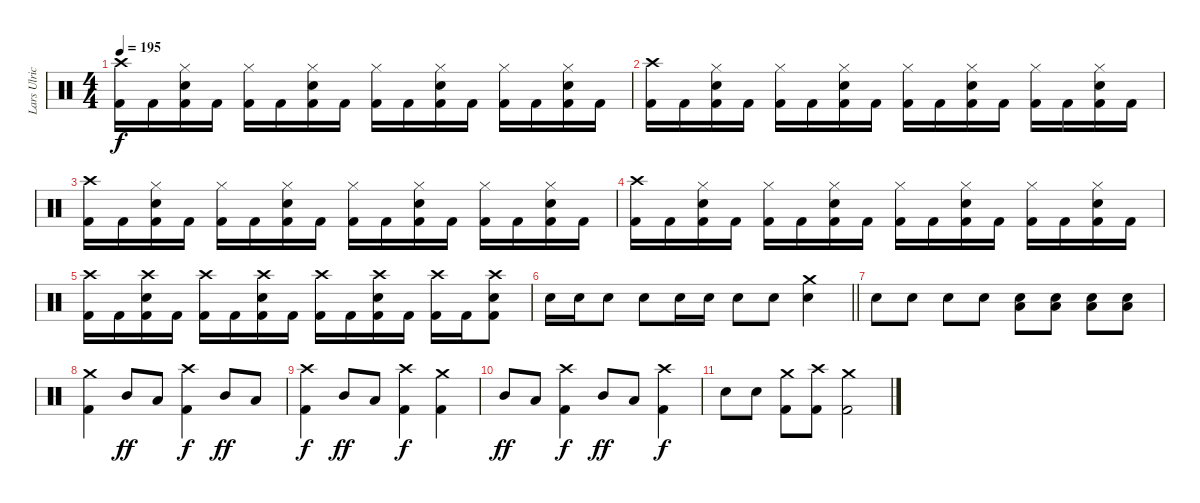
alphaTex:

\track ("Lars Ulrich" "Lars Ulric") {instrument percussion}
\staff {score}
\articulation defaults
\ts (4 4)
\tempo 195
\clef neutral
\ks c
("Crash high (hit)" "Kick (hit) 2").16{dy f} "Kick (hit) 2".16 ("Hi-Hat (closed)" "Electric Snare (hit)" "Kick (hit) 2").16 "Kick (hit) 2".16 ("Hi-Hat (closed)" "Kick (hit) 2").16 "Kick (hit) 2".16 ("Hi-Hat (closed)" "Electric Snare (hit)" "Kick (hit) 2").16 "Kick (hit) 2".16 ("Hi-Hat (closed)" "Kick (hit) 2").16 "Kick (hit) 2".16 ("Hi-Hat (closed)" "Electric Snare (hit)" "Kick (hit) 2").16 "Kick (hit) 2".16 ("Hi-Hat (closed)" "Kick (hit) 2").16 "Kick (hit) 2".16 ("Hi-Hat (closed)" "Electric Snare (hit)" "Kick (hit) 2").16 "Kick (hit) 2".16 |
("Crash high (hit)" "Kick (hit) 2").16 "Kick (hit) 2".16 ("Hi-Hat (closed)" "Electric Snare (hit)" "Kick (hit) 2").16 "Kick (hit) 2".16 ("Hi-Hat (closed)" "Kick (hit) 2").16 "Kick (hit) 2".16 ("Hi-Hat (closed)" "Electric Snare (hit)" "Kick (hit) 2").16 "Kick (hit) 2".16 ("Hi-Hat (closed)" "Kick (hit) 2").16 "Kick (hit) 2".16 ("Hi-Hat (closed)" "Electric Snare (hit)" "Kick (hit) 2").16 "Kick (hit) 2".16 ("Hi-Hat (closed)" "Kick (hit) 2").16 "Kick (hit) 2".16 ("Hi-Hat (closed)" "Electric Snare (hit)" "Kick (hit) 2").16 "Kick (hit) 2".16 |
("Crash high (hit)" "Kick (hit) 2").16 "Kick (hit) 2".16 ("Hi-Hat (closed)" "Electric Snare (hit)" "Kick (hit) 2").16 "Kick (hit) 2".16 ("Hi-Hat (closed)" "Kick (hit) 2").16 "Kick (hit) 2".16 ("Hi-Hat (closed)" "Electric Snare (hit)" "Kick (hit) 2").16 "Kick (hit) 2".16 ("Hi-Hat (closed)" "Kick (hit) 2").16 "Kick (hit) 2".16 ("Hi-Hat (closed)" "Electric Snare (hit)" "Kick (hit) 2").16 "Kick (hit) 2".16 ("Hi-Hat (closed)" "Kick (hit) 2").16 "Kick (hit) 2".16 ("Hi-Hat (closed)" "Electric Snare (hit)" "Kick (hit) 2").16 "Kick (hit) 2".16 |
("Crash high (hit)" "Kick (hit) 2").16 "Kick (hit) 2".16 ("Hi-Hat (closed)" "Electric Snare (hit)" "Kick (hit) 2").16 "Kick (hit) 2".16 ("Hi-Hat (closed)" "Kick (hit) 2").16 "Kick (hit) 2".16 ("Hi-Hat (closed)" "Electric Snare (hit)" "Kick (hit) 2").16 "Kick (hit) 2".16 ("Hi-Hat (closed)" "Kick (hit) 2").16 "Kick (hit) 2".16 ("Hi-Hat (closed)" "Electric Snare (hit)" "Kick (hit) 2").16 "Kick (hit) 2".16 ("Hi-Hat (closed)" "Kick (hit) 2").16 "Kick (hit) 2".16 ("Hi-Hat (closed)" "Electric Snare (hit)" "Kick (hit) 2").16 "Kick (hit) 2".16 |
("Crash high (hit)" "Kick (hit) 2").16 "Kick (hit) 2".16 ("Crash high (hit)" "Electric Snare (hit)" "Kick (hit) 2").16 "Kick (hit) 2".16 ("Crash high (hit)" "Kick (hit) 2").16 "Kick (hit) 2".16 ("Crash high (hit)" "Electric Snare (hit)" "Kick (hit) 2").16 "Kick (hit) 2".16 ("Crash high (hit)" "Kick (hit) 2").16 "Kick (hit) 2".16 ("Crash high (hit)" "Electric Snare (hit)" "Kick (hit) 2").16 "Kick (hit) 2".16 ("Crash high (hit)" "Kick (hit) 2").16 "Kick (hit) 2".16 ("Crash high (hit)" "Electric Snare (hit)" "Kick (hit) 2").8 |
\barLineRight lightlight "Electric Snare (hit)".16 "Electric Snare (hit)".16 "Electric Snare (hit)".8 "Electric Snare (hit)".8 "Electric Snare (hit)".16 "Electric Snare (hit)".16 "Electric Snare (hit)".8 "Electric Snare (hit)".8
("Crash medium (hit)" "Electric Snare (hit)").4 |
"Electric Snare (hit)".8 "Electric Snare (hit)".8 "Electric Snare (hit)".8 "Electric Snare (hit)".8 ("Low Floor Tom (hit)" "Electric Snare (hit)").8 ("Low Floor Tom (hit)" "Electric Snare (hit)").8 ("Low Floor Tom (hit)" "Electric Snare (hit)").8 ("Low Floor Tom (hit)" "Electric Snare (hit)").8 |
("Crash medium (hit)" "Kick (hit) 2").4 "Mid Tom (hit)".8{dy ff} "Low Tom (hit)".8 ("Crash high (hit)" "Kick (hit) 2").4{dy f} "Mid Tom (hit)".8{dy ff} "Low Tom (hit)".8 |
("Crash high (hit)" "Kick (hit) 2").4{dy f} "Mid Tom (hit)".8{dy ff} "Low Tom (hit)".8 ("Crash high (hit)" "Kick (hit) 2").4{dy f} ("Crash medium (hit)" "Kick (hit) 2").4 |
"Mid Tom (hit)".8{dy ff} "Low Tom (hit)".8 ("Crash high (hit)" "Kick (hit) 2").4{dy f} "Mid Tom (hit)".8{dy ff} "Low Tom (hit)".8 ("Crash high (hit)" "Kick (hit) 2").4{dy f} |
"Electric Snare (hit)".8 "Electric Snare (hit)".8 ("Crash medium (hit)" "Kick (hit) 2").8 ("Crash high (hit)" "Kick (hit) 2").8 ("Crash medium (hit)" "Kick (hit) 2").2
